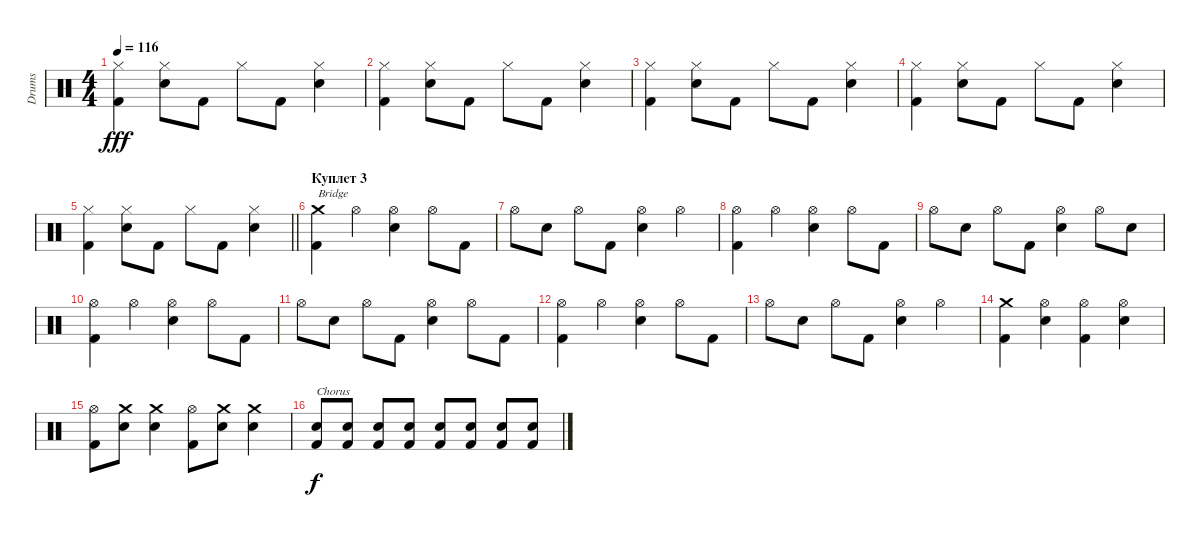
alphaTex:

\track ("Drums" "Drums") {instrument percussion}
\staff {score}
\articulation defaults
\ts (4 4)
\tempo 116
\clef neutral
\ks c
("Hi-Hat (closed)" "Kick (hit) 2").4{dy fff} ("Hi-Hat (closed)" "Snare (hit) 2").8 "Kick (hit) 2".8 "Hi-Hat (closed)".8 "Kick (hit) 2".8 ("Hi-Hat (closed)" "Snare (hit) 2").4 |
("Hi-Hat (closed)" "Kick (hit) 2").4 ("Hi-Hat (closed)" "Snare (hit) 2").8 "Kick (hit) 2".8 "Hi-Hat (closed)".8 "Kick (hit) 2".8 ("Hi-Hat (closed)" "Snare (hit) 2").4 |
("Hi-Hat (closed)" "Kick (hit) 2").4 ("Hi-Hat (closed)" "Snare (hit) 2").8 "Kick (hit) 2".8 "Hi-Hat (closed)".8 "Kick (hit) 2".8 ("Hi-Hat (closed)" "Snare (hit) 2").4 |
("Hi-Hat (closed)" "Kick (hit) 2").4 ("Hi-Hat (closed)" "Snare (hit) 2").8 "Kick (hit) 2".8 "Hi-Hat (closed)".8 "Kick (hit) 2".8 ("Hi-Hat (closed)" "Snare (hit) 2").4 |
\barLineRight lightlight
("Hi-Hat (closed)" "Kick (hit) 2").4 ("Hi-Hat (closed)" "Snare (hit) 2").8 "Kick (hit) 2".8 "Hi-Hat (closed)".8 "Kick (hit) 2".8 ("Hi-Hat (closed)" "Snare (hit) 2").4 |
\section ("" "Куплет 3")
("Crash medium (hit)" "Kick (hit) 2").4{txt "Bridge"} "Hi-Hat (open)".4 ("Hi-Hat (open)" "Snare (hit) 2").4 "Hi-Hat (open)".8 "Kick (hit) 2".8 |
"Hi-Hat (open)".8 "Snare (hit) 2".8 "Hi-Hat (open)".8 "Kick (hit) 2".8 ("Hi-Hat (open)" "Snare (hit) 2").4 "Hi-Hat (open)".4 |
("Hi-Hat (open)" "Kick (hit) 2").4 "Hi-Hat (open)".4 ("Hi-Hat (open)" "Snare (hit) 2").4 "Hi-Hat (open)".8 "Kick (hit) 2".8 |
"Hi-Hat (open)".8 "Snare (hit) 2".8 "Hi-Hat (open)".8 "Kick (hit) 2".8 ("Hi-Hat (open)" "Snare (hit) 2").4 "Hi-Hat (open)".8 "Snare (hit) 2".8 |
("Hi-Hat (open)" "Kick (hit) 2").4 "Hi-Hat (open)".4 ("Hi-Hat (open)" "Snare (hit) 2").4 "Hi-Hat (open)".8 "Kick (hit) 2".8 |
"Hi-Hat (open)".8 "Snare (hit) 2".8 "Hi-Hat (open)".8 "Kick (hit) 2".8 ("Hi-Hat (open)" "Snare (hit) 2").4 "Hi-Hat (open)".8 "Kick (hit) 2".8 |
("Hi-Hat (open)" "Kick (hit) 2").4 "Hi-Hat (open)".4 ("Hi-Hat (open)" "Snare (hit) 2").4 "Hi-Hat (open)".8 "Kick (hit) 2".8 |
"Hi-Hat (open)".8 "Snare (hit) 2".8 "Hi-Hat (open)".8 "Kick (hit) 2".8 ("Hi-Hat (open)" "Snare (hit) 2").4 "Hi-Hat (open)".4 |
("Crash medium (hit)" "Kick (hit) 2").4 ("Hi-Hat (open)" "Snare (hit) 2").4 ("Hi-Hat (open)" "Kick (hit) 2").4 ("Hi-Hat (open)" "Snare (hit) 2").4 |
("Hi-Hat (open)" "Kick (hit) 2").8 ("Crash medium (hit)" "Snare (hit) 2").8 ("Crash medium (hit)" "Snare (hit) 2").4 ("Hi-Hat (open)" "Kick (hit) 2").8 ("Crash medium (hit)" "Snare (hit) 2").8 ("Crash medium (hit)" "Snare (hit) 2").4 |
("Snare (hit) 2" "Kick (hit) 2").8{txt "Chorus" dy f} ("Snare (hit) 2" "Kick (hit) 2").8 ("Snare (hit) 2" "Kick (hit) 2").8 ("Snare (hit) 2" "Kick (hit) 2").8 ("Snare (hit) 2" "Kick (hit) 2").8 ("Snare (hit) 2" "Kick (hit) 2").8 ("Snare (hit) 2" "Kick (hit) 2").8 ("Snare (hit) 2" "Kick (hit) 2").8
